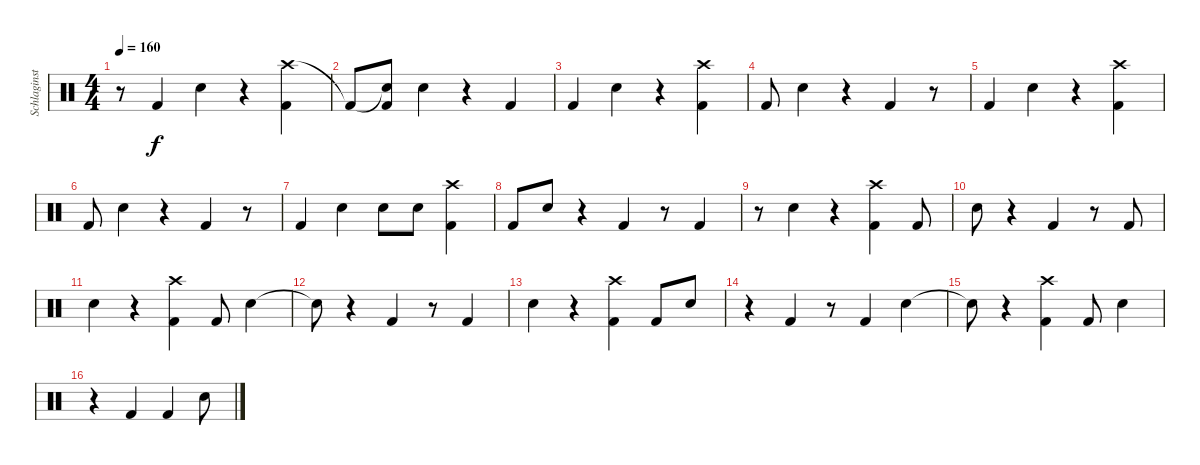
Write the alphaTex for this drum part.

\track ("Schlaginstrumente - Auswahl" "Schlaginst") {instrument percussion}
\staff {score}
\articulation defaults
\ts (4 4)
\tempo 160
\clef neutral
\ks c
r.8{dy f} "Kick (hit) 2".4 "Electric Snare (hit)".4 r.4 ("Crash high (hit)" "Kick (hit) 2").4 |
"Kick (hit) 2"{t}.8 ("Snare (hit)"{t} "Kick (hit) 2").8 "Electric Snare (hit)".4 r.4 "Kick (hit) 2".4 |
"Kick (hit) 2".4 "Electric Snare (hit)".4 r.4 ("Crash high (hit)" "Kick (hit) 2").4 |
"Kick (hit) 2".8 "Electric Snare (hit)".4 r.4 "Kick (hit) 2".4 r.8 |
"Kick (hit) 2".4 "Electric Snare (hit)".4 r.4 ("Crash high (hit)" "Kick (hit) 2").4 |
"Kick (hit) 2".8 "Electric Snare (hit)".4 r.4 "Kick (hit) 2".4 r.8 |
"Kick (hit) 2".4 "Electric Snare (hit)".4 "Electric Snare (hit)".8 "Electric Snare (hit)".8 ("Crash high (hit)" "Kick (hit) 2").4 |
"Kick (hit) 2".8 "Electric Snare (hit)".8 r.4 "Kick (hit) 2".4 r.8 "Kick (hit) 2".4 |
r.8 "Electric Snare (hit)".4 r.4 ("Crash high (hit)" "Kick (hit) 2").4 "Kick (hit) 2".8 |
"Electric Snare (hit)".8 r.4 "Kick (hit) 2".4 r.8 "Kick (hit) 2".8 |
"Electric Snare (hit)".4 r.4 ("Crash high (hit)" "Kick (hit) 2").4 "Kick (hit) 2".8 "Electric Snare (hit)".4 |
"Snare (hit)"{t}.8 r.4 "Kick (hit) 2".4 r.8 "Kick (hit) 2".4 |
"Electric Snare (hit)".4 r.4 ("Crash high (hit)" "Kick (hit) 2").4 "Kick (hit) 2".8 "Electric Snare (hit)".8 |
r.4 "Kick (hit) 2".4 r.8 "Kick (hit) 2".4 "Electric Snare (hit)".4 |
"Snare (hit)"{t}.8 r.4 ("Crash high (hit)" "Kick (hit) 2").4 "Kick (hit) 2".8 "Electric Snare (hit)".4 |
r.4 "Kick (hit) 2".4 "Kick (hit) 2".4 "Electric Snare (hit)".8
